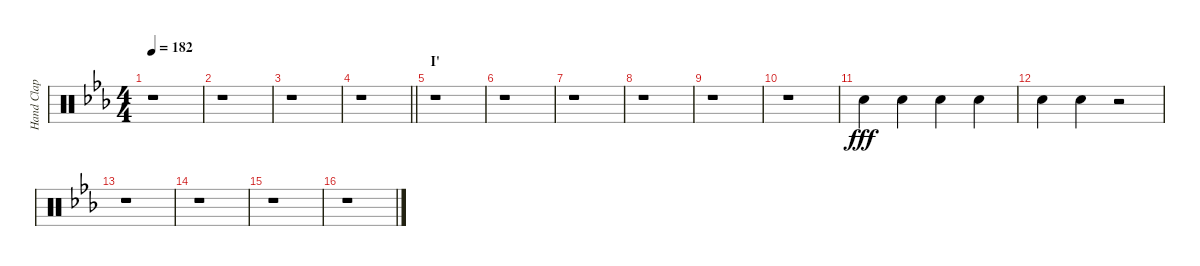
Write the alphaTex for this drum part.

\track ("Hand Clap" "Hand Clap") {instrument percussion}
\staff {score}
\articulation defaults
\ts (4 4)
\tempo 182
\clef neutral
\ks eb
r.1{dy fff} |
r.1 |
r.1 |
\barLineRight lightlight
r.1 |
\section ("" "I'")
r.1 |
r.1 |
r.1 |
r.1 |
r.1 |
r.1 |
"Hand Clap (hit)".4 "Hand Clap (hit)".4 "Hand Clap (hit)".4 "Hand Clap (hit)".4 |
"Hand Clap (hit)".4 "Hand Clap (hit)".4 r.2 |
r.1 |
r.1 |
r.1 |
r.1
